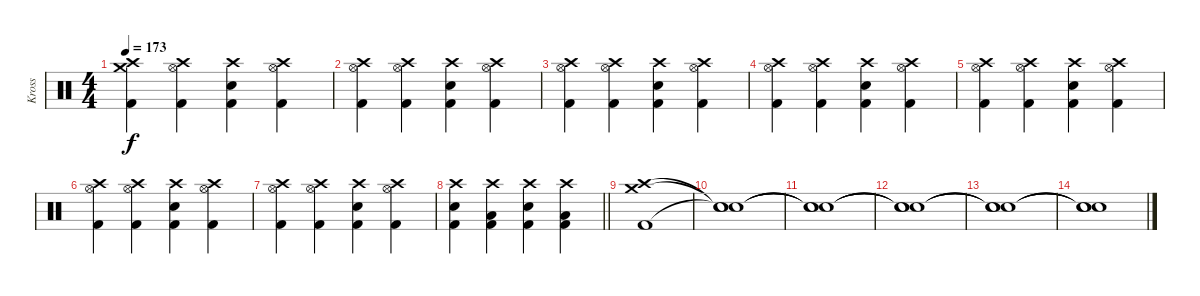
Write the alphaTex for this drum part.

\track ("Kross" "Kross") {instrument percussion}
\staff {score}
\articulation defaults
\ts (4 4)
\tempo 173
\clef neutral
\ks c
("Crash medium (hit)" "Crash high (hit)" "Kick (hit) 2").4{dy f} ("Crash high (hit)" "Hi-Hat (open)" "Kick (hit) 2").4 ("Crash high (hit)" "Electric Snare (hit)" "Kick (hit) 2").4 ("Crash high (hit)" "Hi-Hat (open)" "Kick (hit) 2").4 |
("Crash high (hit)" "Hi-Hat (open)" "Kick (hit) 2").4 ("Crash high (hit)" "Hi-Hat (open)" "Kick (hit) 2").4 ("Crash high (hit)" "Electric Snare (hit)" "Kick (hit) 2").4 ("Crash high (hit)" "Hi-Hat (open)" "Kick (hit) 2").4 |
("Crash high (hit)" "Hi-Hat (open)" "Kick (hit) 2").4 ("Crash high (hit)" "Hi-Hat (open)" "Kick (hit) 2").4 ("Crash high (hit)" "Electric Snare (hit)" "Kick (hit) 2").4 ("Crash high (hit)" "Hi-Hat (open)" "Kick (hit) 2").4 |
("Crash high (hit)" "Hi-Hat (open)" "Kick (hit) 2").4 ("Crash high (hit)" "Hi-Hat (open)" "Kick (hit) 2").4 ("Crash high (hit)" "Electric Snare (hit)" "Kick (hit) 2").4 ("Crash high (hit)" "Hi-Hat (open)" "Kick (hit) 2").4 |
("Crash high (hit)" "Hi-Hat (open)" "Kick (hit) 2").4 ("Crash high (hit)" "Hi-Hat (open)" "Kick (hit) 2").4 ("Crash high (hit)" "Electric Snare (hit)" "Kick (hit) 2").4 ("Crash high (hit)" "Hi-Hat (open)" "Kick (hit) 2").4 |
("Crash high (hit)" "Hi-Hat (open)" "Kick (hit) 2").4 ("Crash high (hit)" "Hi-Hat (open)" "Kick (hit) 2").4 ("Crash high (hit)" "Electric Snare (hit)" "Kick (hit) 2").4 ("Crash high (hit)" "Hi-Hat (open)" "Kick (hit) 2").4 |
("Crash high (hit)" "Hi-Hat (open)" "Kick (hit) 2").4 ("Crash high (hit)" "Hi-Hat (open)" "Kick (hit) 2").4 ("Crash high (hit)" "Electric Snare (hit)" "Kick (hit) 2").4 ("Crash high (hit)" "Hi-Hat (open)" "Kick (hit) 2").4 |
\barLineRight lightlight
("Crash high (hit)" "Electric Snare (hit)" "Kick (hit) 2").4 ("Crash high (hit)" "Low Tom (hit)" "Kick (hit) 2").4 ("Crash high (hit)" "Electric Snare (hit)" "Kick (hit) 2").4 ("Crash high (hit)" "Low Tom (hit)" "Kick (hit) 2").4 |
("Crash medium (hit)" "Crash high (hit)" "Kick (hit) 2").1 |
("Snare (hit)"{t} "Snare (hit)"{t} "Snare (hit)"{t}).1 |
("Snare (hit)"{t} "Snare (hit)"{t} "Snare (hit)"{t}).1 |
("Snare (hit)"{t} "Snare (hit)"{t} "Snare (hit)"{t}).1 |
("Snare (hit)"{t} "Snare (hit)"{t} "Snare (hit)"{t}).1 |
("Snare (hit)"{t} "Snare (hit)"{t} "Snare (hit)"{t}).1
